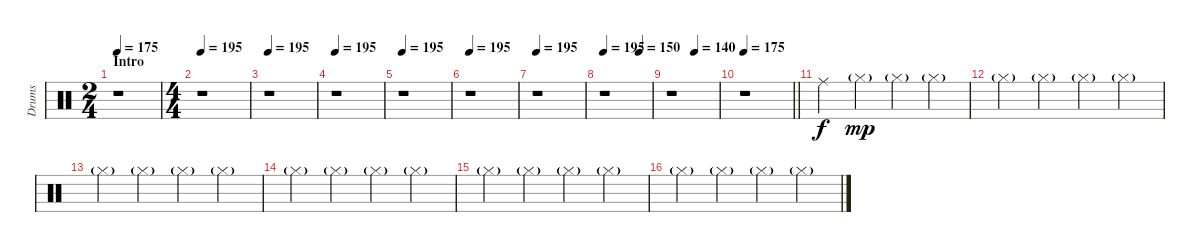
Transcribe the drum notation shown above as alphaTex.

\track ("Drums" "Drums") {instrument percussion}
\staff {score}
\articulation defaults
\ts (2 4)
\section ("" "Intro")
\tempo 175
\clef neutral
\ks c
r.1{dy f} |
\ts (4 4)
\tempo 195
r.1 |
\tempo 195
r.1 |
\tempo 195
r.1 |
\tempo 195
r.1 |
\tempo 195
r.1 |
\tempo 195
r.1 |
\tempo 195
\tempo (150 0.75)
r.1 |
\tempo (140 0.5)
r.1 |
\tempo 175
\barLineRight lightlight
r.1 |
"Ride (middle)".4 "Hi-Hat (closed)"{g}.4{dy mp} "Hi-Hat (closed)"{g}.4 "Hi-Hat (closed)"{g}.4 |
"Hi-Hat (closed)"{g}.4 "Hi-Hat (closed)"{g}.4 "Hi-Hat (closed)"{g}.4 "Hi-Hat (closed)"{g}.4 |
"Hi-Hat (closed)"{g}.4 "Hi-Hat (closed)"{g}.4 "Hi-Hat (closed)"{g}.4 "Hi-Hat (closed)"{g}.4 |
"Hi-Hat (closed)"{g}.4 "Hi-Hat (closed)"{g}.4 "Hi-Hat (closed)"{g}.4 "Hi-Hat (closed)"{g}.4 |
"Hi-Hat (closed)"{g}.4 "Hi-Hat (closed)"{g}.4 "Hi-Hat (closed)"{g}.4 "Hi-Hat (closed)"{g}.4 |
"Hi-Hat (closed)"{g}.4 "Hi-Hat (closed)"{g}.4 "Hi-Hat (closed)"{g}.4 "Hi-Hat (closed)"{g}.4
